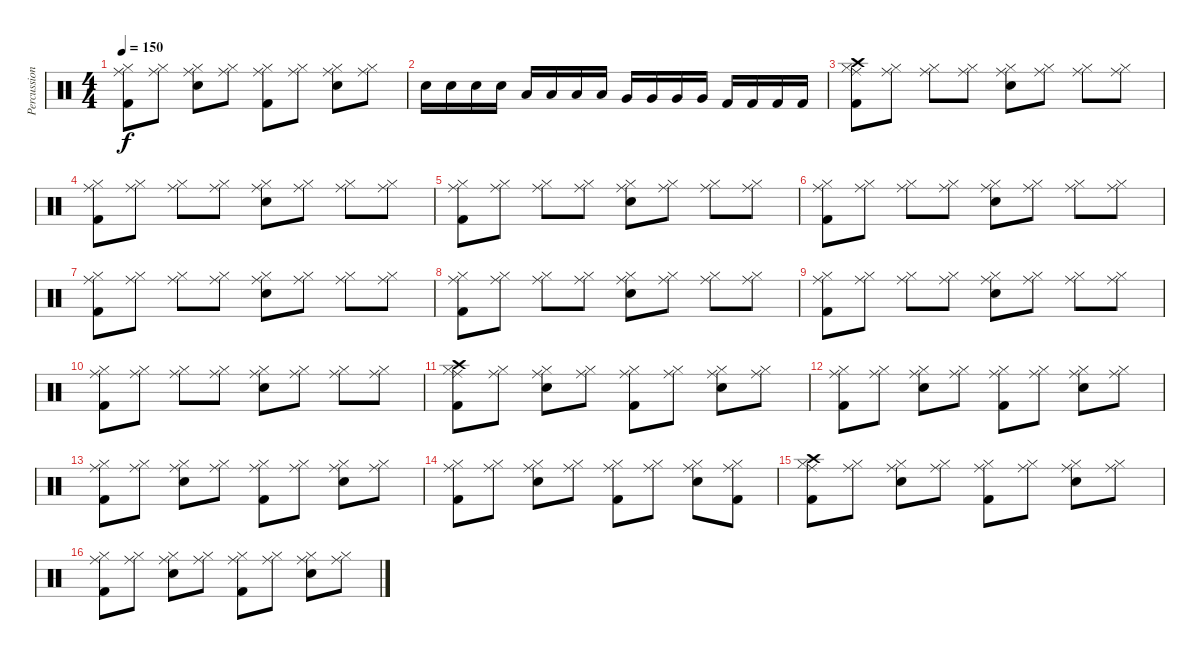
\track ("Percussion" "Percussion") {instrument percussion}
\staff {score}
\articulation defaults
\ts (4 4)
\tempo 150
\clef neutral
\ks c
("Hi-Hat (closed)" "Ride (middle)" "Kick (hit) 2").8{dy f} ("Hi-Hat (closed)" "Ride (middle)").8 ("Hi-Hat (closed)" "Ride (middle)" "Electric Snare (hit)").8 ("Hi-Hat (closed)" "Ride (middle)").8 ("Hi-Hat (closed)" "Ride (middle)" "Kick (hit) 2").8 ("Hi-Hat (closed)" "Ride (middle)").8 ("Hi-Hat (closed)" "Ride (middle)" "Electric Snare (hit)").8 ("Hi-Hat (closed)" "Ride (middle)").8 |
"Electric Snare (hit)".16 "Electric Snare (hit)".16 "Electric Snare (hit)".16 "Electric Snare (hit)".16 "Low Tom (hit)".16 "Low Tom (hit)".16 "Low Tom (hit)".16 "Low Tom (hit)".16 "Very Low Tom (hit)".16 "Very Low Tom (hit)".16 "Very Low Tom (hit)".16 "Very Low Tom (hit)".16 "Kick (hit) 2".16 "Kick (hit) 2".16 "Kick (hit) 2".16 "Kick (hit) 2".16 |
("Hi-Hat (closed)" "Crash high (hit)" "Ride (middle)" "Kick (hit) 2").8 ("Hi-Hat (closed)" "Ride (middle)").8 ("Hi-Hat (closed)" "Ride (middle)").8 ("Hi-Hat (closed)" "Ride (middle)").8 ("Hi-Hat (closed)" "Ride (middle)" "Electric Snare (hit)").8 ("Hi-Hat (closed)" "Ride (middle)").8 ("Hi-Hat (closed)" "Ride (middle)").8 ("Hi-Hat (closed)" "Ride (middle)").8 |
("Hi-Hat (closed)" "Ride (middle)" "Kick (hit) 2").8 ("Hi-Hat (closed)" "Ride (middle)").8 ("Hi-Hat (closed)" "Ride (middle)").8 ("Hi-Hat (closed)" "Ride (middle)").8 ("Hi-Hat (closed)" "Ride (middle)" "Electric Snare (hit)").8 ("Hi-Hat (closed)" "Ride (middle)").8 ("Hi-Hat (closed)" "Ride (middle)").8 ("Hi-Hat (closed)" "Ride (middle)").8 |
("Hi-Hat (closed)" "Ride (middle)" "Kick (hit) 2").8 ("Hi-Hat (closed)" "Ride (middle)").8 ("Hi-Hat (closed)" "Ride (middle)").8 ("Hi-Hat (closed)" "Ride (middle)").8 ("Hi-Hat (closed)" "Ride (middle)" "Electric Snare (hit)").8 ("Hi-Hat (closed)" "Ride (middle)").8 ("Hi-Hat (closed)" "Ride (middle)").8 ("Hi-Hat (closed)" "Ride (middle)").8 |
("Hi-Hat (closed)" "Ride (middle)" "Kick (hit) 2").8 ("Hi-Hat (closed)" "Ride (middle)").8 ("Hi-Hat (closed)" "Ride (middle)").8 ("Hi-Hat (closed)" "Ride (middle)").8 ("Hi-Hat (closed)" "Ride (middle)" "Electric Snare (hit)").8 ("Hi-Hat (closed)" "Ride (middle)").8 ("Hi-Hat (closed)" "Ride (middle)").8 ("Hi-Hat (closed)" "Ride (middle)").8 |
("Hi-Hat (closed)" "Ride (middle)" "Kick (hit) 2").8 ("Hi-Hat (closed)" "Ride (middle)").8 ("Hi-Hat (closed)" "Ride (middle)").8 ("Hi-Hat (closed)" "Ride (middle)").8 ("Hi-Hat (closed)" "Ride (middle)" "Electric Snare (hit)").8 ("Hi-Hat (closed)" "Ride (middle)").8 ("Hi-Hat (closed)" "Ride (middle)").8 ("Hi-Hat (closed)" "Ride (middle)").8 |
("Hi-Hat (closed)" "Ride (middle)" "Kick (hit) 2").8 ("Hi-Hat (closed)" "Ride (middle)").8 ("Hi-Hat (closed)" "Ride (middle)").8 ("Hi-Hat (closed)" "Ride (middle)").8 ("Hi-Hat (closed)" "Ride (middle)" "Electric Snare (hit)").8 ("Hi-Hat (closed)" "Ride (middle)").8 ("Hi-Hat (closed)" "Ride (middle)").8 ("Hi-Hat (closed)" "Ride (middle)").8 |
("Hi-Hat (closed)" "Ride (middle)" "Kick (hit) 2").8 ("Hi-Hat (closed)" "Ride (middle)").8 ("Hi-Hat (closed)" "Ride (middle)").8 ("Hi-Hat (closed)" "Ride (middle)").8 ("Hi-Hat (closed)" "Ride (middle)" "Electric Snare (hit)").8 ("Hi-Hat (closed)" "Ride (middle)").8 ("Hi-Hat (closed)" "Ride (middle)").8 ("Hi-Hat (closed)" "Ride (middle)").8 |
("Hi-Hat (closed)" "Ride (middle)" "Kick (hit) 2").8 ("Hi-Hat (closed)" "Ride (middle)").8 ("Hi-Hat (closed)" "Ride (middle)").8 ("Hi-Hat (closed)" "Ride (middle)").8 ("Hi-Hat (closed)" "Ride (middle)" "Electric Snare (hit)").8 ("Hi-Hat (closed)" "Ride (middle)").8 ("Hi-Hat (closed)" "Ride (middle)").8 ("Hi-Hat (closed)" "Ride (middle)").8 |
("Hi-Hat (closed)" "Crash high (hit)" "Ride (middle)" "Kick (hit) 2").8 ("Hi-Hat (closed)" "Ride (middle)").8 ("Hi-Hat (closed)" "Ride (middle)" "Electric Snare (hit)").8 ("Hi-Hat (closed)" "Ride (middle)").8 ("Hi-Hat (closed)" "Ride (middle)" "Kick (hit) 2").8 ("Hi-Hat (closed)" "Ride (middle)").8 ("Hi-Hat (closed)" "Ride (middle)" "Electric Snare (hit)").8 ("Hi-Hat (closed)" "Ride (middle)").8 |
("Hi-Hat (closed)" "Ride (middle)" "Kick (hit) 2").8 ("Hi-Hat (closed)" "Ride (middle)").8 ("Hi-Hat (closed)" "Ride (middle)" "Electric Snare (hit)").8 ("Hi-Hat (closed)" "Ride (middle)").8 ("Hi-Hat (closed)" "Ride (middle)" "Kick (hit) 2").8 ("Hi-Hat (closed)" "Ride (middle)").8 ("Hi-Hat (closed)" "Ride (middle)" "Electric Snare (hit)").8 ("Hi-Hat (closed)" "Ride (middle)").8 |
("Hi-Hat (closed)" "Ride (middle)" "Kick (hit) 2").8 ("Hi-Hat (closed)" "Ride (middle)").8 ("Hi-Hat (closed)" "Ride (middle)" "Electric Snare (hit)").8 ("Hi-Hat (closed)" "Ride (middle)").8 ("Hi-Hat (closed)" "Ride (middle)" "Kick (hit) 2").8 ("Hi-Hat (closed)" "Ride (middle)").8 ("Hi-Hat (closed)" "Ride (middle)" "Electric Snare (hit)").8 ("Hi-Hat (closed)" "Ride (middle)").8 |
("Hi-Hat (closed)" "Ride (middle)" "Kick (hit) 2").8 ("Hi-Hat (closed)" "Ride (middle)").8 ("Hi-Hat (closed)" "Ride (middle)" "Electric Snare (hit)").8 ("Hi-Hat (closed)" "Ride (middle)").8 ("Hi-Hat (closed)" "Ride (middle)" "Kick (hit) 2").8 ("Hi-Hat (closed)" "Ride (middle)").8 ("Hi-Hat (closed)" "Ride (middle)" "Electric Snare (hit)").8 ("Hi-Hat (closed)" "Ride (middle)" "Kick (hit) 2").8 |
("Hi-Hat (closed)" "Crash high (hit)" "Ride (middle)" "Kick (hit) 2").8 ("Hi-Hat (closed)" "Ride (middle)").8 ("Hi-Hat (closed)" "Ride (middle)" "Electric Snare (hit)").8 ("Hi-Hat (closed)" "Ride (middle)").8 ("Hi-Hat (closed)" "Ride (middle)" "Kick (hit) 2").8 ("Hi-Hat (closed)" "Ride (middle)").8 ("Hi-Hat (closed)" "Ride (middle)" "Electric Snare (hit)").8 ("Hi-Hat (closed)" "Ride (middle)").8 |
("Hi-Hat (closed)" "Ride (middle)" "Kick (hit) 2").8 ("Hi-Hat (closed)" "Ride (middle)").8 ("Hi-Hat (closed)" "Ride (middle)" "Electric Snare (hit)").8 ("Hi-Hat (closed)" "Ride (middle)").8 ("Hi-Hat (closed)" "Ride (middle)" "Kick (hit) 2").8 ("Hi-Hat (closed)" "Ride (middle)").8 ("Hi-Hat (closed)" "Ride (middle)" "Electric Snare (hit)").8 ("Hi-Hat (closed)" "Ride (middle)").8
